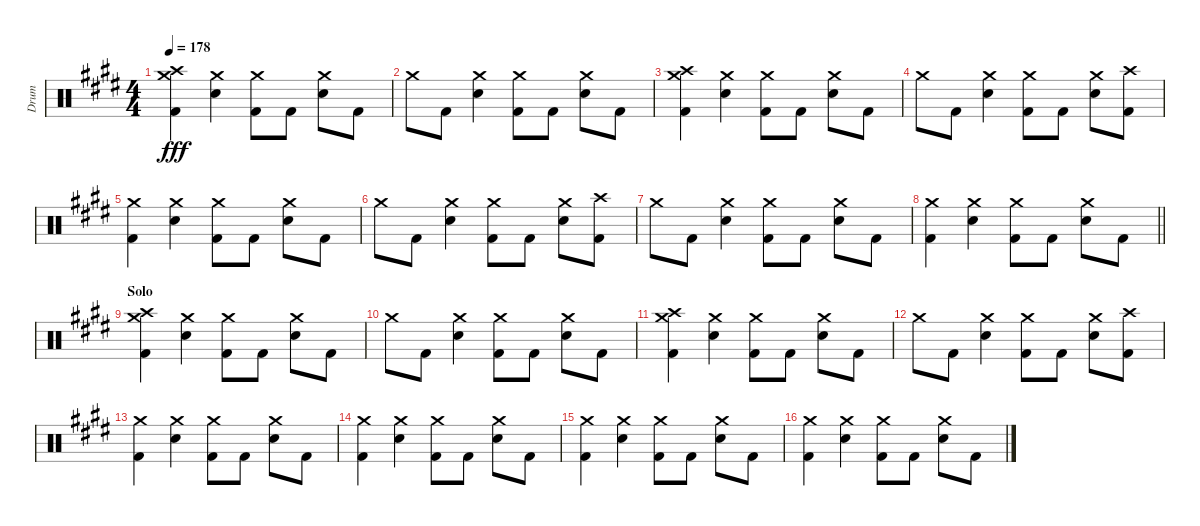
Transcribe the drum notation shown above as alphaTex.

\track ("Drum" "Drum") {instrument percussion}
\staff {score}
\articulation defaults
\ts (4 4)
\tempo 178
\clef neutral
\ks e
("Crash medium (hit)" "Crash high (hit)" "Kick (hit) 2").4{dy fff} ("Crash medium (hit)" "Electric Snare (hit)").4 ("Crash medium (hit)" "Kick (hit) 2").8 "Kick (hit) 2".8 ("Crash medium (hit)" "Electric Snare (hit)").8 "Kick (hit) 2".8 |
"Crash medium (hit)".8 "Kick (hit) 2".8 ("Crash medium (hit)" "Electric Snare (hit)").4 ("Crash medium (hit)" "Kick (hit) 2").8 "Kick (hit) 2".8 ("Crash medium (hit)" "Electric Snare (hit)").8 "Kick (hit) 2".8 |
("Crash medium (hit)" "Crash high (hit)" "Kick (hit) 2").4 ("Crash medium (hit)" "Electric Snare (hit)").4 ("Crash medium (hit)" "Kick (hit) 2").8 "Kick (hit) 2".8 ("Crash medium (hit)" "Electric Snare (hit)").8 "Kick (hit) 2".8 |
"Crash medium (hit)".8 "Kick (hit) 2".8 ("Crash medium (hit)" "Electric Snare (hit)").4 ("Crash medium (hit)" "Kick (hit) 2").8 "Kick (hit) 2".8 ("Crash medium (hit)" "Electric Snare (hit)").8 ("Crash high (hit)" "Kick (hit) 2").8 |
("Crash medium (hit)" "Kick (hit) 2").4 ("Crash medium (hit)" "Electric Snare (hit)").4 ("Crash medium (hit)" "Kick (hit) 2").8 "Kick (hit) 2".8 ("Crash medium (hit)" "Electric Snare (hit)").8 "Kick (hit) 2".8 |
"Crash medium (hit)".8 "Kick (hit) 2".8 ("Crash medium (hit)" "Electric Snare (hit)").4 ("Crash medium (hit)" "Kick (hit) 2").8 "Kick (hit) 2".8 ("Crash medium (hit)" "Electric Snare (hit)").8 ("Crash high (hit)" "Kick (hit) 2").8 |
"Crash medium (hit)".8 "Kick (hit) 2".8 ("Crash medium (hit)" "Electric Snare (hit)").4 ("Crash medium (hit)" "Kick (hit) 2").8 "Kick (hit) 2".8 ("Crash medium (hit)" "Electric Snare (hit)").8 "Kick (hit) 2".8 |
\barLineRight lightlight
("Crash medium (hit)" "Kick (hit) 2").4 ("Crash medium (hit)" "Electric Snare (hit)").4 ("Crash medium (hit)" "Kick (hit) 2").8 "Kick (hit) 2".8 ("Crash medium (hit)" "Electric Snare (hit)").8 "Kick (hit) 2".8 |
\section ("" "Solo")
("Crash medium (hit)" "Crash high (hit)" "Kick (hit) 2").4 ("Crash medium (hit)" "Electric Snare (hit)").4 ("Crash medium (hit)" "Kick (hit) 2").8 "Kick (hit) 2".8 ("Crash medium (hit)" "Electric Snare (hit)").8 "Kick (hit) 2".8 |
"Crash medium (hit)".8 "Kick (hit) 2".8 ("Crash medium (hit)" "Electric Snare (hit)").4 ("Crash medium (hit)" "Kick (hit) 2").8 "Kick (hit) 2".8 ("Crash medium (hit)" "Electric Snare (hit)").8 "Kick (hit) 2".8 |
("Crash medium (hit)" "Crash high (hit)" "Kick (hit) 2").4 ("Crash medium (hit)" "Electric Snare (hit)").4 ("Crash medium (hit)" "Kick (hit) 2").8 "Kick (hit) 2".8 ("Crash medium (hit)" "Electric Snare (hit)").8 "Kick (hit) 2".8 |
"Crash medium (hit)".8 "Kick (hit) 2".8 ("Crash medium (hit)" "Electric Snare (hit)").4 ("Crash medium (hit)" "Kick (hit) 2").8 "Kick (hit) 2".8 ("Crash medium (hit)" "Electric Snare (hit)").8 ("Crash high (hit)" "Kick (hit) 2").8 |
("Crash medium (hit)" "Kick (hit) 2").4 ("Crash medium (hit)" "Electric Snare (hit)").4 ("Crash medium (hit)" "Kick (hit) 2").8 "Kick (hit) 2".8 ("Crash medium (hit)" "Electric Snare (hit)").8 "Kick (hit) 2".8 |
("Crash medium (hit)" "Kick (hit) 2").4 ("Crash medium (hit)" "Electric Snare (hit)").4 ("Crash medium (hit)" "Kick (hit) 2").8 "Kick (hit) 2".8 ("Crash medium (hit)" "Electric Snare (hit)").8 "Kick (hit) 2".8 |
("Crash medium (hit)" "Kick (hit) 2").4 ("Crash medium (hit)" "Electric Snare (hit)").4 ("Crash medium (hit)" "Kick (hit) 2").8 "Kick (hit) 2".8 ("Crash medium (hit)" "Electric Snare (hit)").8 "Kick (hit) 2".8 |
("Crash medium (hit)" "Kick (hit) 2").4 ("Crash medium (hit)" "Electric Snare (hit)").4 ("Crash medium (hit)" "Kick (hit) 2").8 "Kick (hit) 2".8 ("Crash medium (hit)" "Electric Snare (hit)").8 "Kick (hit) 2".8
